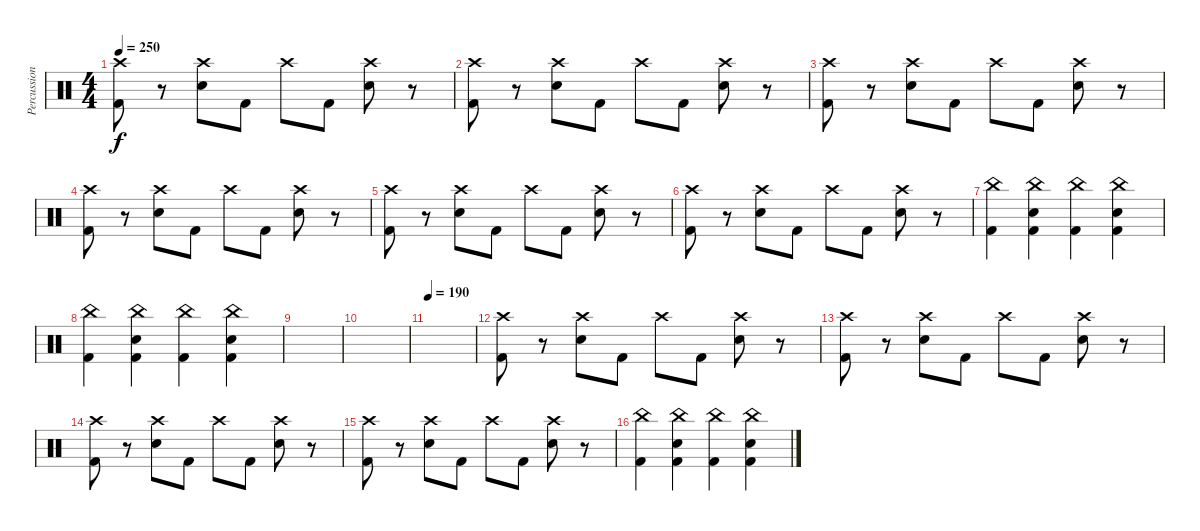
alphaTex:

\track ("Percussion" "Percussion") {instrument percussion}
\staff {score}
\articulation defaults
\ts (4 4)
\tempo 250
\clef neutral
\ks c
("Crash high (hit)" "Kick (hit) 2").8{dy f} r.8 ("Crash high (hit)" "Snare (hit) 2").8 "Kick (hit) 2".8 "Crash high (hit)".8 "Kick (hit) 2".8 ("Crash high (hit)" "Snare (hit) 2").8 r.8 |
("Crash high (hit)" "Kick (hit) 2").8 r.8 ("Crash high (hit)" "Snare (hit) 2").8 "Kick (hit) 2".8 "Crash high (hit)".8 "Kick (hit) 2".8 ("Crash high (hit)" "Snare (hit) 2").8 r.8 |
("Crash high (hit)" "Kick (hit) 2").8 r.8 ("Crash high (hit)" "Snare (hit) 2").8 "Kick (hit) 2".8 "Crash high (hit)".8 "Kick (hit) 2".8 ("Crash high (hit)" "Snare (hit) 2").8 r.8 |
("Crash high (hit)" "Kick (hit) 2").8 r.8 ("Crash high (hit)" "Snare (hit) 2").8 "Kick (hit) 2".8 "Crash high (hit)".8 "Kick (hit) 2".8 ("Crash high (hit)" "Snare (hit) 2").8 r.8 |
("Crash high (hit)" "Kick (hit) 2").8 r.8 ("Crash high (hit)" "Snare (hit) 2").8 "Kick (hit) 2".8 "Crash high (hit)".8 "Kick (hit) 2".8 ("Crash high (hit)" "Snare (hit) 2").8 r.8 |
("Crash high (hit)" "Kick (hit) 2").8 r.8 ("Crash high (hit)" "Snare (hit) 2").8 "Kick (hit) 2".8 "Crash high (hit)".8 "Kick (hit) 2".8 ("Crash high (hit)" "Snare (hit) 2").8 r.8 |
("China (hit)" "Kick (hit) 2").4 ("China (hit)" "Snare (hit) 2" "Kick (hit) 2").4 ("China (hit)" "Kick (hit) 2").4 ("China (hit)" "Snare (hit) 2" "Kick (hit) 2").4 |
("China (hit)" "Kick (hit) 2").4 ("China (hit)" "Snare (hit) 2" "Kick (hit) 2").4 ("China (hit)" "Kick (hit) 2").4 ("China (hit)" "Snare (hit) 2" "Kick (hit) 2").4 |
|
|
\tempo 190
|
("Crash high (hit)" "Kick (hit) 2").8 r.8 ("Crash high (hit)" "Snare (hit) 2").8 "Kick (hit) 2".8 "Crash high (hit)".8 "Kick (hit) 2".8 ("Crash high (hit)" "Snare (hit) 2").8 r.8 |
("Crash high (hit)" "Kick (hit) 2").8 r.8 ("Crash high (hit)" "Snare (hit) 2").8 "Kick (hit) 2".8 "Crash high (hit)".8 "Kick (hit) 2".8 ("Crash high (hit)" "Snare (hit) 2").8 r.8 |
("Crash high (hit)" "Kick (hit) 2").8 r.8 ("Crash high (hit)" "Snare (hit) 2").8 "Kick (hit) 2".8 "Crash high (hit)".8 "Kick (hit) 2".8 ("Crash high (hit)" "Snare (hit) 2").8 r.8 |
("Crash high (hit)" "Kick (hit) 2").8 r.8 ("Crash high (hit)" "Snare (hit) 2").8 "Kick (hit) 2".8 "Crash high (hit)".8 "Kick (hit) 2".8 ("Crash high (hit)" "Snare (hit) 2").8 r.8 |
("China (hit)" "Kick (hit) 2").4 ("China (hit)" "Snare (hit) 2" "Kick (hit) 2").4 ("China (hit)" "Kick (hit) 2").4 ("China (hit)" "Snare (hit) 2" "Kick (hit) 2").4
